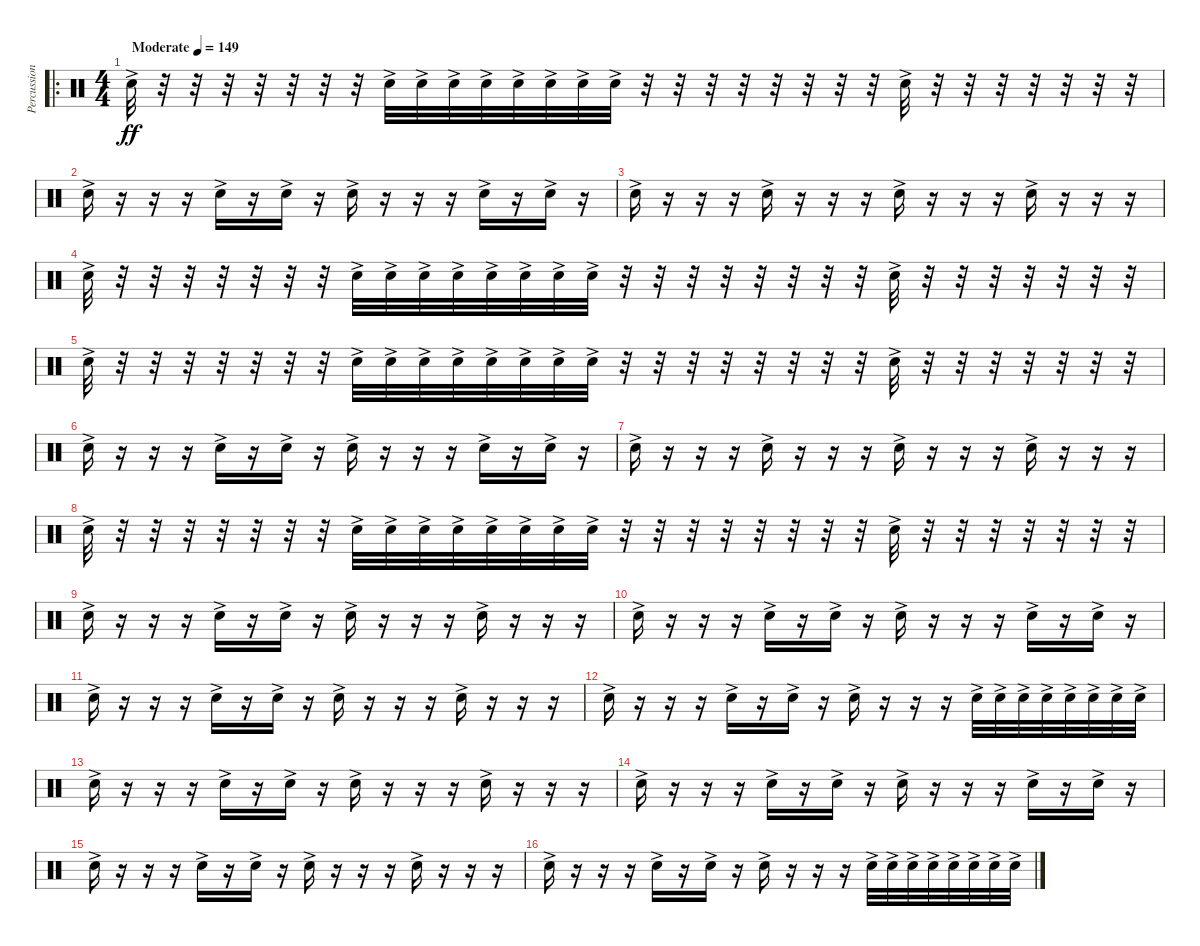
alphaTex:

\track ("Percussion" "Percussion") {instrument percussion}
\staff {score}
\articulation defaults
\ro
\ts (4 4)
\tempo (149 "Moderate")
\clef neutral
\ks c "Snare (hit) 2"{ac}.32{dy ff}
r.32 r.32 r.32 r.32 r.32 r.32 r.32 "Snare (hit) 2"{ac}.32 "Snare (hit) 2"{ac}.32 "Snare (hit) 2"{ac}.32 "Snare (hit) 2"{ac}.32 "Snare (hit) 2"{ac}.32 "Snare (hit) 2"{ac}.32 "Snare (hit) 2"{ac}.32 "Snare (hit) 2"{ac}.32 r.32 r.32 r.32 r.32 r.32 r.32 r.32 r.32 "Snare (hit) 2"{ac}.32 r.32 r.32 r.32 r.32 r.32 r.32 r.32 |
"Snare (hit) 2"{ac}.16 r.16 r.16 r.16 "Snare (hit) 2"{ac}.16 r.16 "Snare (hit) 2"{ac}.16 r.16 "Snare (hit) 2"{ac}.16 r.16 r.16 r.16 "Snare (hit) 2"{ac}.16 r.16 "Snare (hit) 2"{ac}.16 r.16 |
"Snare (hit) 2"{ac}.16 r.16 r.16 r.16 "Snare (hit) 2"{ac}.16 r.16 r.16 r.16 "Snare (hit) 2"{ac}.16 r.16 r.16 r.16 "Snare (hit) 2"{ac}.16 r.16 r.16 r.16 |
"Snare (hit) 2"{ac}.32 r.32 r.32 r.32 r.32 r.32 r.32 r.32 "Snare (hit) 2"{ac}.32 "Snare (hit) 2"{ac}.32 "Snare (hit) 2"{ac}.32 "Snare (hit) 2"{ac}.32 "Snare (hit) 2"{ac}.32 "Snare (hit) 2"{ac}.32 "Snare (hit) 2"{ac}.32 "Snare (hit) 2"{ac}.32 r.32 r.32 r.32 r.32 r.32 r.32 r.32 r.32 "Snare (hit) 2"{ac}.32 r.32 r.32 r.32 r.32 r.32 r.32 r.32 |
"Snare (hit) 2"{ac}.32 r.32 r.32 r.32 r.32 r.32 r.32 r.32 "Snare (hit) 2"{ac}.32 "Snare (hit) 2"{ac}.32 "Snare (hit) 2"{ac}.32 "Snare (hit) 2"{ac}.32 "Snare (hit) 2"{ac}.32 "Snare (hit) 2"{ac}.32 "Snare (hit) 2"{ac}.32 "Snare (hit) 2"{ac}.32 r.32 r.32 r.32 r.32 r.32 r.32 r.32 r.32 "Snare (hit) 2"{ac}.32 r.32 r.32 r.32 r.32 r.32 r.32 r.32 |
"Snare (hit) 2"{ac}.16 r.16 r.16 r.16 "Snare (hit) 2"{ac}.16 r.16 "Snare (hit) 2"{ac}.16 r.16 "Snare (hit) 2"{ac}.16 r.16 r.16 r.16 "Snare (hit) 2"{ac}.16 r.16 "Snare (hit) 2"{ac}.16 r.16 |
"Snare (hit) 2"{ac}.16 r.16 r.16 r.16 "Snare (hit) 2"{ac}.16 r.16 r.16 r.16 "Snare (hit) 2"{ac}.16 r.16 r.16 r.16 "Snare (hit) 2"{ac}.16 r.16 r.16 r.16 |
"Snare (hit) 2"{ac}.32 r.32 r.32 r.32 r.32 r.32 r.32 r.32 "Snare (hit) 2"{ac}.32 "Snare (hit) 2"{ac}.32 "Snare (hit) 2"{ac}.32 "Snare (hit) 2"{ac}.32 "Snare (hit) 2"{ac}.32 "Snare (hit) 2"{ac}.32 "Snare (hit) 2"{ac}.32 "Snare (hit) 2"{ac}.32 r.32 r.32 r.32 r.32 r.32 r.32 r.32 r.32 "Snare (hit) 2"{ac}.32 r.32 r.32 r.32 r.32 r.32 r.32 r.32 |
"Snare (hit) 2"{ac}.16 r.16 r.16 r.16 "Snare (hit) 2"{ac}.16 r.16 "Snare (hit) 2"{ac}.16 r.16 "Snare (hit) 2"{ac}.16 r.16 r.16 r.16 "Snare (hit) 2"{ac}.16 r.16 r.16 r.16 |
"Snare (hit) 2"{ac}.16 r.16 r.16 r.16 "Snare (hit) 2"{ac}.16 r.16 "Snare (hit) 2"{ac}.16 r.16 "Snare (hit) 2"{ac}.16 r.16 r.16 r.16 "Snare (hit) 2"{ac}.16 r.16 "Snare (hit) 2"{ac}.16 r.16 |
"Snare (hit) 2"{ac}.16 r.16 r.16 r.16 "Snare (hit) 2"{ac}.16 r.16 "Snare (hit) 2"{ac}.16 r.16 "Snare (hit) 2"{ac}.16 r.16 r.16 r.16 "Snare (hit) 2"{ac}.16 r.16 r.16 r.16 |
"Snare (hit) 2"{ac}.16 r.16 r.16 r.16 "Snare (hit) 2"{ac}.16 r.16 "Snare (hit) 2"{ac}.16 r.16 "Snare (hit) 2"{ac}.16 r.16 r.16 r.16 "Snare (hit) 2"{ac}.32 "Snare (hit) 2"{ac}.32 "Snare (hit) 2"{ac}.32 "Snare (hit) 2"{ac}.32 "Snare (hit) 2"{ac}.32 "Snare (hit) 2"{ac}.32 "Snare (hit) 2"{ac}.32 "Snare (hit) 2"{ac}.32 |
"Snare (hit) 2"{ac}.16 r.16 r.16 r.16 "Snare (hit) 2"{ac}.16 r.16 "Snare (hit) 2"{ac}.16 r.16 "Snare (hit) 2"{ac}.16 r.16 r.16 r.16 "Snare (hit) 2"{ac}.16 r.16 r.16 r.16 |
"Snare (hit) 2"{ac}.16 r.16 r.16 r.16 "Snare (hit) 2"{ac}.16 r.16 "Snare (hit) 2"{ac}.16 r.16 "Snare (hit) 2"{ac}.16 r.16 r.16 r.16 "Snare (hit) 2"{ac}.16 r.16 "Snare (hit) 2"{ac}.16 r.16 |
"Snare (hit) 2"{ac}.16 r.16 r.16 r.16 "Snare (hit) 2"{ac}.16 r.16 "Snare (hit) 2"{ac}.16 r.16 "Snare (hit) 2"{ac}.16 r.16 r.16 r.16 "Snare (hit) 2"{ac}.16 r.16 r.16 r.16 |
"Snare (hit) 2"{ac}.16 r.16 r.16 r.16 "Snare (hit) 2"{ac}.16 r.16 "Snare (hit) 2"{ac}.16 r.16 "Snare (hit) 2"{ac}.16 r.16 r.16 r.16 "Snare (hit) 2"{ac}.32 "Snare (hit) 2"{ac}.32 "Snare (hit) 2"{ac}.32 "Snare (hit) 2"{ac}.32 "Snare (hit) 2"{ac}.32 "Snare (hit) 2"{ac}.32 "Snare (hit) 2"{ac}.32 "Snare (hit) 2"{ac}.32
